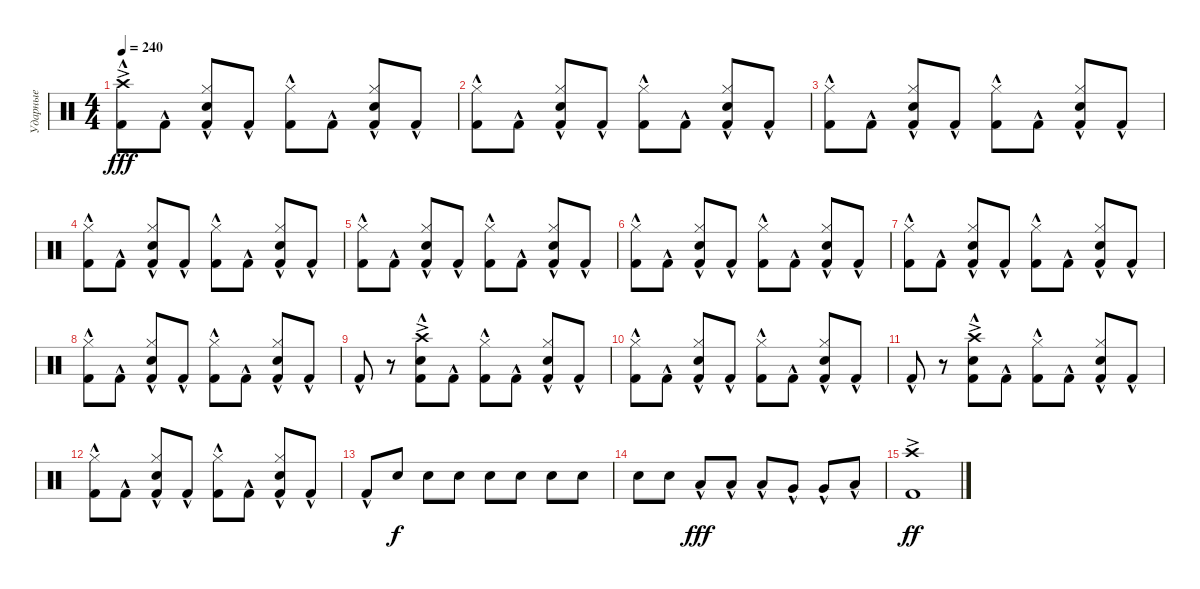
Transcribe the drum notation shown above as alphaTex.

\track ("Ударные" "Ударные") {instrument percussion}
\staff {score}
\articulation defaults
\ts (4 4)
\tempo 240
\clef neutral
\ks c
("Crash high (hit)"{ac} "Kick (hit) 2"{hac}).8{dy fff} "Kick (hit) 2"{hac}.8 ("Hi-Hat (closed)" "Snare (hit) 2" "Kick (hit) 2"{hac}).8 "Kick (hit) 2"{hac}.8 ("Hi-Hat (closed)" "Kick (hit) 2"{hac}).8 "Kick (hit) 2"{hac}.8 ("Hi-Hat (closed)" "Snare (hit) 2" "Kick (hit) 2"{hac}).8 "Kick (hit) 2"{hac}.8 |
("Hi-Hat (closed)" "Kick (hit) 2"{hac}).8 "Kick (hit) 2"{hac}.8 ("Hi-Hat (closed)" "Snare (hit) 2" "Kick (hit) 2"{hac}).8 "Kick (hit) 2"{hac}.8 ("Hi-Hat (closed)" "Kick (hit) 2"{hac}).8 "Kick (hit) 2"{hac}.8 ("Hi-Hat (closed)" "Snare (hit) 2" "Kick (hit) 2"{hac}).8 "Kick (hit) 2"{hac}.8 |
("Hi-Hat (closed)" "Kick (hit) 2"{hac}).8 "Kick (hit) 2"{hac}.8 ("Hi-Hat (closed)" "Snare (hit) 2" "Kick (hit) 2"{hac}).8 "Kick (hit) 2"{hac}.8 ("Hi-Hat (closed)" "Kick (hit) 2"{hac}).8 "Kick (hit) 2"{hac}.8 ("Hi-Hat (closed)" "Snare (hit) 2" "Kick (hit) 2"{hac}).8 "Kick (hit) 2"{hac}.8 |
("Hi-Hat (closed)" "Kick (hit) 2"{hac}).8 "Kick (hit) 2"{hac}.8 ("Hi-Hat (closed)" "Snare (hit) 2" "Kick (hit) 2"{hac}).8 "Kick (hit) 2"{hac}.8 ("Hi-Hat (closed)" "Kick (hit) 2"{hac}).8 "Kick (hit) 2"{hac}.8 ("Hi-Hat (closed)" "Snare (hit) 2" "Kick (hit) 2"{hac}).8 "Kick (hit) 2"{hac}.8 |
("Hi-Hat (closed)" "Kick (hit) 2"{hac}).8 "Kick (hit) 2"{hac}.8 ("Hi-Hat (closed)" "Snare (hit) 2" "Kick (hit) 2"{hac}).8 "Kick (hit) 2"{hac}.8 ("Hi-Hat (closed)" "Kick (hit) 2"{hac}).8 "Kick (hit) 2"{hac}.8 ("Hi-Hat (closed)" "Snare (hit) 2" "Kick (hit) 2"{hac}).8 "Kick (hit) 2"{hac}.8 |
("Hi-Hat (closed)" "Kick (hit) 2"{hac}).8 "Kick (hit) 2"{hac}.8 ("Hi-Hat (closed)" "Snare (hit) 2" "Kick (hit) 2"{hac}).8 "Kick (hit) 2"{hac}.8 ("Hi-Hat (closed)" "Kick (hit) 2"{hac}).8 "Kick (hit) 2"{hac}.8 ("Hi-Hat (closed)" "Snare (hit) 2" "Kick (hit) 2"{hac}).8 "Kick (hit) 2"{hac}.8 |
("Hi-Hat (closed)" "Kick (hit) 2"{hac}).8 "Kick (hit) 2"{hac}.8 ("Hi-Hat (closed)" "Snare (hit) 2" "Kick (hit) 2"{hac}).8 "Kick (hit) 2"{hac}.8 ("Hi-Hat (closed)" "Kick (hit) 2"{hac}).8 "Kick (hit) 2"{hac}.8 ("Hi-Hat (closed)" "Snare (hit) 2" "Kick (hit) 2"{hac}).8 "Kick (hit) 2"{hac}.8 |
("Hi-Hat (closed)" "Kick (hit) 2"{hac}).8 "Kick (hit) 2"{hac}.8 ("Hi-Hat (closed)" "Snare (hit) 2" "Kick (hit) 2"{hac}).8 "Kick (hit) 2"{hac}.8 ("Hi-Hat (closed)" "Kick (hit) 2"{hac}).8 "Kick (hit) 2"{hac}.8 ("Hi-Hat (closed)" "Snare (hit) 2" "Kick (hit) 2"{hac}).8 "Kick (hit) 2"{hac}.8 |
"Kick (hit) 2"{hac}.8 r.8 ("Crash high (hit)"{ac} "Snare (hit) 2" "Kick (hit) 2"{hac}).8 "Kick (hit) 2"{hac}.8 ("Hi-Hat (closed)" "Kick (hit) 2"{hac}).8 "Kick (hit) 2"{hac}.8 ("Hi-Hat (closed)" "Snare (hit) 2" "Kick (hit) 2"{hac}).8 "Kick (hit) 2"{hac}.8 |
("Hi-Hat (closed)" "Kick (hit) 2"{hac}).8 "Kick (hit) 2"{hac}.8 ("Hi-Hat (closed)" "Snare (hit) 2" "Kick (hit) 2"{hac}).8 "Kick (hit) 2"{hac}.8 ("Hi-Hat (closed)" "Kick (hit) 2"{hac}).8 "Kick (hit) 2"{hac}.8 ("Hi-Hat (closed)" "Snare (hit) 2" "Kick (hit) 2"{hac}).8 "Kick (hit) 2"{hac}.8 |
"Kick (hit) 2"{hac}.8 r.8 ("Crash high (hit)"{ac} "Snare (hit) 2" "Kick (hit) 2"{hac}).8 "Kick (hit) 2"{hac}.8 ("Hi-Hat (closed)" "Kick (hit) 2"{hac}).8 "Kick (hit) 2"{hac}.8 ("Hi-Hat (closed)" "Snare (hit) 2" "Kick (hit) 2"{hac}).8 "Kick (hit) 2"{hac}.8 |
("Hi-Hat (closed)" "Kick (hit) 2"{hac}).8 "Kick (hit) 2"{hac}.8 ("Hi-Hat (closed)" "Snare (hit) 2" "Kick (hit) 2"{hac}).8 "Kick (hit) 2"{hac}.8 ("Hi-Hat (closed)" "Kick (hit) 2"{hac}).8 "Kick (hit) 2"{hac}.8 ("Hi-Hat (closed)" "Snare (hit) 2" "Kick (hit) 2"{hac}).8 "Kick (hit) 2"{hac}.8 |
"Kick (hit) 2"{hac}.8 "Snare (hit) 2".8{dy f} "Snare (hit) 2".8 "Snare (hit) 2".8 "Snare (hit) 2".8 "Snare (hit) 2".8 "Snare (hit) 2".8 "Snare (hit) 2".8 |
"Snare (hit) 2".8 "Snare (hit) 2".8 "Low Tom (hit)"{hac}.8{dy fff} "Low Tom (hit)"{hac}.8 "Low Tom (hit)"{hac}.8 "Very Low Tom (hit)"{hac}.8 "Very Low Tom (hit)"{hac}.8 "Low Floor Tom (hit)"{hac}.8 |
("Crash high (hit)"{ac} "Kick (hit) 2").1{dy ff}
